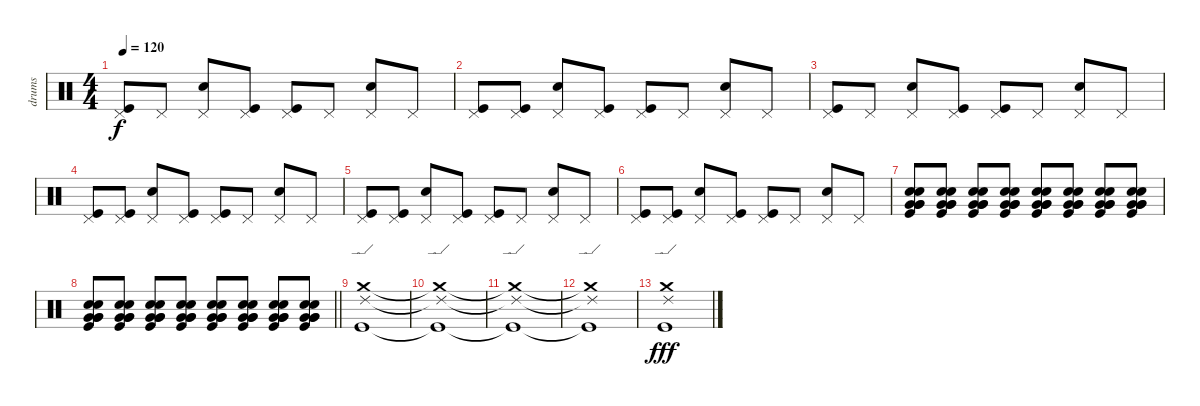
\track ("drums" "drums") {instrument percussion}
\staff {score}
\articulation defaults
\ts (4 4)
\tempo 120
\clef neutral
\ks c
("Pedal Hi-Hat (hit)" "Kick (hit)").8{dy f} "Pedal Hi-Hat (hit)".8 ("Pedal Hi-Hat (hit)" "Electric Snare (hit)").8 ("Pedal Hi-Hat (hit)" "Kick (hit)").8 ("Pedal Hi-Hat (hit)" "Kick (hit)").8 "Pedal Hi-Hat (hit)".8 ("Pedal Hi-Hat (hit)" "Electric Snare (hit)").8 "Pedal Hi-Hat (hit)".8 |
("Pedal Hi-Hat (hit)" "Kick (hit)").8 ("Pedal Hi-Hat (hit)" "Kick (hit)").8 ("Pedal Hi-Hat (hit)" "Electric Snare (hit)").8 ("Pedal Hi-Hat (hit)" "Kick (hit)").8 ("Pedal Hi-Hat (hit)" "Kick (hit)").8 "Pedal Hi-Hat (hit)".8 ("Pedal Hi-Hat (hit)" "Electric Snare (hit)").8 "Pedal Hi-Hat (hit)".8 |
("Pedal Hi-Hat (hit)" "Kick (hit)").8 "Pedal Hi-Hat (hit)".8 ("Pedal Hi-Hat (hit)" "Electric Snare (hit)").8 ("Pedal Hi-Hat (hit)" "Kick (hit)").8 ("Pedal Hi-Hat (hit)" "Kick (hit)").8 "Pedal Hi-Hat (hit)".8 ("Pedal Hi-Hat (hit)" "Electric Snare (hit)").8 "Pedal Hi-Hat (hit)".8 |
("Pedal Hi-Hat (hit)" "Kick (hit)").8 ("Pedal Hi-Hat (hit)" "Kick (hit)").8 ("Pedal Hi-Hat (hit)" "Electric Snare (hit)").8 ("Pedal Hi-Hat (hit)" "Kick (hit)").8 ("Pedal Hi-Hat (hit)" "Kick (hit)").8 "Pedal Hi-Hat (hit)".8 ("Pedal Hi-Hat (hit)" "Electric Snare (hit)").8 "Pedal Hi-Hat (hit)".8 |
("Pedal Hi-Hat (hit)" "Kick (hit)").8 ("Pedal Hi-Hat (hit)" "Kick (hit)").8 ("Pedal Hi-Hat (hit)" "Electric Snare (hit)").8 ("Pedal Hi-Hat (hit)" "Kick (hit)").8 ("Pedal Hi-Hat (hit)" "Kick (hit)").8 "Pedal Hi-Hat (hit)".8 ("Pedal Hi-Hat (hit)" "Electric Snare (hit)").8 "Pedal Hi-Hat (hit)".8 |
("Pedal Hi-Hat (hit)" "Kick (hit)").8 ("Pedal Hi-Hat (hit)" "Kick (hit)").8 ("Pedal Hi-Hat (hit)" "Electric Snare (hit)").8 ("Pedal Hi-Hat (hit)" "Kick (hit)").8 ("Pedal Hi-Hat (hit)" "Kick (hit)").8 "Pedal Hi-Hat (hit)".8 ("Pedal Hi-Hat (hit)" "Electric Snare (hit)").8 "Pedal Hi-Hat (hit)".8 |
("Very Low Tom (hit)" "Very Low Tom (hit)" "Very Low Tom (hit)" "Electric Snare (hit)" "Electric Snare (hit)" "Kick (hit)").8 ("Very Low Tom (hit)" "Very Low Tom (hit)" "Very Low Tom (hit)" "Electric Snare (hit)" "Electric Snare (hit)" "Kick (hit)").8 ("Very Low Tom (hit)" "Very Low Tom (hit)" "Very Low Tom (hit)" "Electric Snare (hit)" "Electric Snare (hit)" "Kick (hit)").8 ("Very Low Tom (hit)" "Very Low Tom (hit)" "Very Low Tom (hit)" "Electric Snare (hit)" "Electric Snare (hit)" "Kick (hit)").8 ("Very Low Tom (hit)" "Very Low Tom (hit)" "Very Low Tom (hit)" "Electric Snare (hit)" "Electric Snare (hit)" "Kick (hit)").8 ("Very Low Tom (hit)" "Very Low Tom (hit)" "Very Low Tom (hit)" "Electric Snare (hit)" "Electric Snare (hit)" "Kick (hit)").8 ("Very Low Tom (hit)" "Very Low Tom (hit)" "Very Low Tom (hit)" "Electric Snare (hit)" "Electric Snare (hit)" "Kick (hit)").8 ("Very Low Tom (hit)" "Very Low Tom (hit)" "Very Low Tom (hit)" "Electric Snare (hit)" "Electric Snare (hit)" "Kick (hit)").8 |
\barLineRight lightlight
("Very Low Tom (hit)" "Very Low Tom (hit)" "Very Low Tom (hit)" "Electric Snare (hit)" "Electric Snare (hit)" "Kick (hit)").8 ("Very Low Tom (hit)" "Very Low Tom (hit)" "Very Low Tom (hit)" "Electric Snare (hit)" "Electric Snare (hit)" "Kick (hit)").8 ("Very Low Tom (hit)" "Very Low Tom (hit)" "Very Low Tom (hit)" "Electric Snare (hit)" "Electric Snare (hit)" "Kick (hit)").8 ("Very Low Tom (hit)" "Very Low Tom (hit)" "Very Low Tom (hit)" "Electric Snare (hit)" "Electric Snare (hit)" "Kick (hit)").8 ("Very Low Tom (hit)" "Very Low Tom (hit)" "Very Low Tom (hit)" "Electric Snare (hit)" "Electric Snare (hit)" "Kick (hit)").8 ("Very Low Tom (hit)" "Very Low Tom (hit)" "Very Low Tom (hit)" "Electric Snare (hit)" "Electric Snare (hit)" "Kick (hit)").8 ("Very Low Tom (hit)" "Very Low Tom (hit)" "Very Low Tom (hit)" "Electric Snare (hit)" "Electric Snare (hit)" "Kick (hit)").8 ("Very Low Tom (hit)" "Very Low Tom (hit)" "Very Low Tom (hit)" "Electric Snare (hit)" "Electric Snare (hit)" "Kick (hit)").8 |
("Crash medium (hit)" "Ride (edge) 2" "Kick (hit)").1 |
("Crash medium (hit)"{t} "Ride (edge) 2"{t} "Kick (hit)"{t}).1 |
("Crash medium (hit)"{t} "Ride (edge) 2"{t} "Kick (hit)"{t}).1 |
("Crash medium (hit)"{t} "Ride (edge) 2"{t} "Kick (hit)"{t}).1 |
("Crash medium (hit)" "Ride (edge) 2" "Kick (hit)").1{dy fff}
